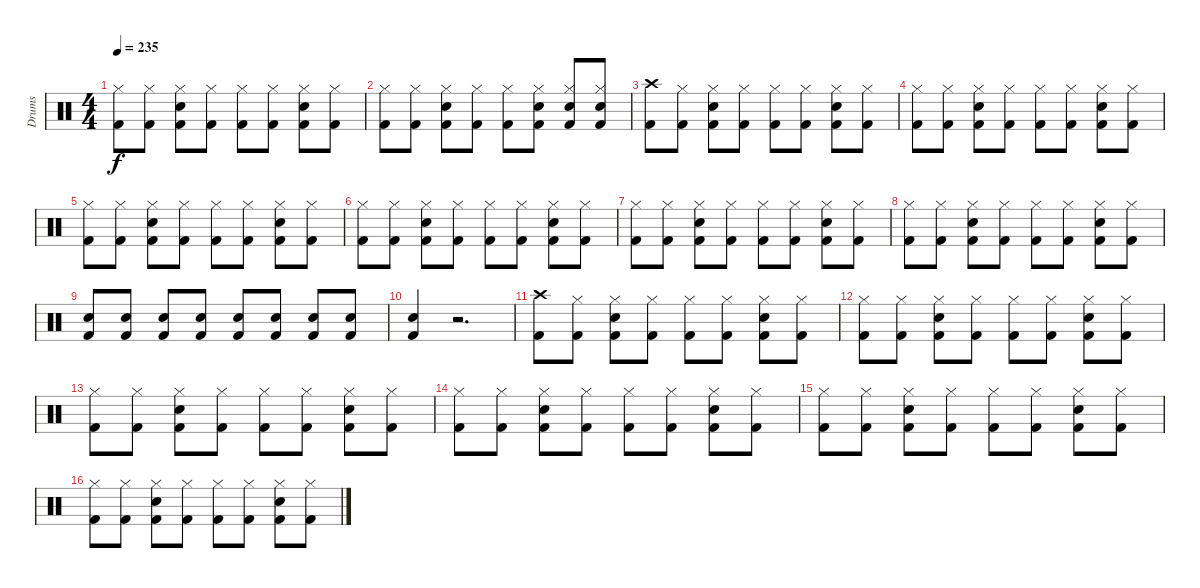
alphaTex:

\track ("Drums" "Drums") {instrument percussion}
\staff {score}
\articulation defaults
\ts (4 4)
\tempo 235
\clef neutral
\ks c
("Kick (hit) 2" "Hi-Hat (closed)").8{dy f} ("Kick (hit) 2" "Hi-Hat (closed)").8 ("Kick (hit) 2" "Snare (hit) 2" "Hi-Hat (closed)").8 ("Kick (hit) 2" "Hi-Hat (closed)").8 ("Kick (hit) 2" "Hi-Hat (closed)").8 ("Kick (hit) 2" "Hi-Hat (closed)").8 ("Kick (hit) 2" "Hi-Hat (closed)" "Snare (hit) 2").8 ("Kick (hit) 2" "Hi-Hat (closed)").8 |
("Kick (hit) 2" "Hi-Hat (closed)").8 ("Kick (hit) 2" "Hi-Hat (closed)").8 ("Kick (hit) 2" "Snare (hit) 2" "Hi-Hat (closed)").8 ("Kick (hit) 2" "Hi-Hat (closed)").8 ("Kick (hit) 2" "Hi-Hat (closed)").8 ("Kick (hit) 2" "Hi-Hat (closed)" "Snare (hit) 2").8 ("Kick (hit) 2" "Hi-Hat (closed)" "Snare (hit) 2").8 ("Kick (hit) 2" "Hi-Hat (closed)" "Snare (hit) 2").8 |
("Kick (hit) 2" "Crash high (hit)").8 ("Kick (hit) 2" "Hi-Hat (closed)").8 ("Kick (hit) 2" "Snare (hit) 2" "Hi-Hat (closed)").8 ("Kick (hit) 2" "Hi-Hat (closed)").8 ("Kick (hit) 2" "Hi-Hat (closed)").8 ("Kick (hit) 2" "Hi-Hat (closed)").8 ("Kick (hit) 2" "Hi-Hat (closed)" "Snare (hit) 2").8 ("Kick (hit) 2" "Hi-Hat (closed)").8 |
("Kick (hit) 2" "Hi-Hat (closed)").8 ("Kick (hit) 2" "Hi-Hat (closed)").8 ("Kick (hit) 2" "Snare (hit) 2" "Hi-Hat (closed)").8 ("Kick (hit) 2" "Hi-Hat (closed)").8 ("Kick (hit) 2" "Hi-Hat (closed)").8 ("Kick (hit) 2" "Hi-Hat (closed)").8 ("Kick (hit) 2" "Hi-Hat (closed)" "Snare (hit) 2").8 ("Kick (hit) 2" "Hi-Hat (closed)").8 |
("Kick (hit) 2" "Hi-Hat (closed)").8 ("Kick (hit) 2" "Hi-Hat (closed)").8 ("Kick (hit) 2" "Snare (hit) 2" "Hi-Hat (closed)").8 ("Kick (hit) 2" "Hi-Hat (closed)").8 ("Kick (hit) 2" "Hi-Hat (closed)").8 ("Kick (hit) 2" "Hi-Hat (closed)").8 ("Kick (hit) 2" "Hi-Hat (closed)" "Snare (hit) 2").8 ("Kick (hit) 2" "Hi-Hat (closed)").8 |
("Kick (hit) 2" "Hi-Hat (closed)").8 ("Kick (hit) 2" "Hi-Hat (closed)").8 ("Kick (hit) 2" "Snare (hit) 2" "Hi-Hat (closed)").8 ("Kick (hit) 2" "Hi-Hat (closed)").8 ("Kick (hit) 2" "Hi-Hat (closed)").8 ("Kick (hit) 2" "Hi-Hat (closed)").8 ("Kick (hit) 2" "Hi-Hat (closed)" "Snare (hit) 2").8 ("Kick (hit) 2" "Hi-Hat (closed)").8 |
("Kick (hit) 2" "Hi-Hat (closed)").8 ("Kick (hit) 2" "Hi-Hat (closed)").8 ("Kick (hit) 2" "Snare (hit) 2" "Hi-Hat (closed)").8 ("Kick (hit) 2" "Hi-Hat (closed)").8 ("Kick (hit) 2" "Hi-Hat (closed)").8 ("Kick (hit) 2" "Hi-Hat (closed)").8 ("Kick (hit) 2" "Hi-Hat (closed)" "Snare (hit) 2").8 ("Kick (hit) 2" "Hi-Hat (closed)").8 |
("Kick (hit) 2" "Hi-Hat (closed)").8 ("Kick (hit) 2" "Hi-Hat (closed)").8 ("Kick (hit) 2" "Snare (hit) 2" "Hi-Hat (closed)").8 ("Kick (hit) 2" "Hi-Hat (closed)").8 ("Kick (hit) 2" "Hi-Hat (closed)").8 ("Kick (hit) 2" "Hi-Hat (closed)").8 ("Kick (hit) 2" "Hi-Hat (closed)" "Snare (hit) 2").8 ("Kick (hit) 2" "Hi-Hat (closed)").8 |
("Kick (hit) 2" "Snare (hit) 2").8 ("Kick (hit) 2" "Snare (hit) 2").8 ("Kick (hit) 2" "Snare (hit) 2").8 ("Kick (hit) 2" "Snare (hit) 2").8 ("Kick (hit) 2" "Snare (hit) 2").8 ("Kick (hit) 2" "Snare (hit) 2").8 ("Kick (hit) 2" "Snare (hit) 2").8 ("Kick (hit) 2" "Snare (hit) 2").8 |
("Kick (hit) 2" "Snare (hit) 2").4 r.2{d} |
("Kick (hit) 2" "Crash high (hit)").8 ("Kick (hit) 2" "Hi-Hat (closed)").8 ("Kick (hit) 2" "Snare (hit) 2" "Hi-Hat (closed)").8 ("Kick (hit) 2" "Hi-Hat (closed)").8 ("Kick (hit) 2" "Hi-Hat (closed)").8 ("Kick (hit) 2" "Hi-Hat (closed)").8 ("Kick (hit) 2" "Hi-Hat (closed)" "Snare (hit) 2").8 ("Kick (hit) 2" "Hi-Hat (closed)").8 |
("Kick (hit) 2" "Hi-Hat (closed)").8 ("Kick (hit) 2" "Hi-Hat (closed)").8 ("Kick (hit) 2" "Snare (hit) 2" "Hi-Hat (closed)").8 ("Kick (hit) 2" "Hi-Hat (closed)").8 ("Kick (hit) 2" "Hi-Hat (closed)").8 ("Kick (hit) 2" "Hi-Hat (closed)").8 ("Kick (hit) 2" "Hi-Hat (closed)" "Snare (hit) 2").8 ("Kick (hit) 2" "Hi-Hat (closed)").8 |
("Kick (hit) 2" "Hi-Hat (closed)").8 ("Kick (hit) 2" "Hi-Hat (closed)").8 ("Kick (hit) 2" "Snare (hit) 2" "Hi-Hat (closed)").8 ("Kick (hit) 2" "Hi-Hat (closed)").8 ("Kick (hit) 2" "Hi-Hat (closed)").8 ("Kick (hit) 2" "Hi-Hat (closed)").8 ("Kick (hit) 2" "Hi-Hat (closed)" "Snare (hit) 2").8 ("Kick (hit) 2" "Hi-Hat (closed)").8 |
("Kick (hit) 2" "Hi-Hat (closed)").8 ("Kick (hit) 2" "Hi-Hat (closed)").8 ("Kick (hit) 2" "Snare (hit) 2" "Hi-Hat (closed)").8 ("Kick (hit) 2" "Hi-Hat (closed)").8 ("Kick (hit) 2" "Hi-Hat (closed)").8 ("Kick (hit) 2" "Hi-Hat (closed)").8 ("Kick (hit) 2" "Hi-Hat (closed)" "Snare (hit) 2").8 ("Kick (hit) 2" "Hi-Hat (closed)").8 |
("Kick (hit) 2" "Hi-Hat (closed)").8 ("Kick (hit) 2" "Hi-Hat (closed)").8 ("Kick (hit) 2" "Snare (hit) 2" "Hi-Hat (closed)").8 ("Kick (hit) 2" "Hi-Hat (closed)").8 ("Kick (hit) 2" "Hi-Hat (closed)").8 ("Kick (hit) 2" "Hi-Hat (closed)").8 ("Kick (hit) 2" "Hi-Hat (closed)" "Snare (hit) 2").8 ("Kick (hit) 2" "Hi-Hat (closed)").8 |
("Kick (hit) 2" "Hi-Hat (closed)").8 ("Kick (hit) 2" "Hi-Hat (closed)").8 ("Kick (hit) 2" "Snare (hit) 2" "Hi-Hat (closed)").8 ("Kick (hit) 2" "Hi-Hat (closed)").8 ("Kick (hit) 2" "Hi-Hat (closed)").8 ("Kick (hit) 2" "Hi-Hat (closed)").8 ("Kick (hit) 2" "Hi-Hat (closed)" "Snare (hit) 2").8 ("Kick (hit) 2" "Hi-Hat (closed)").8
